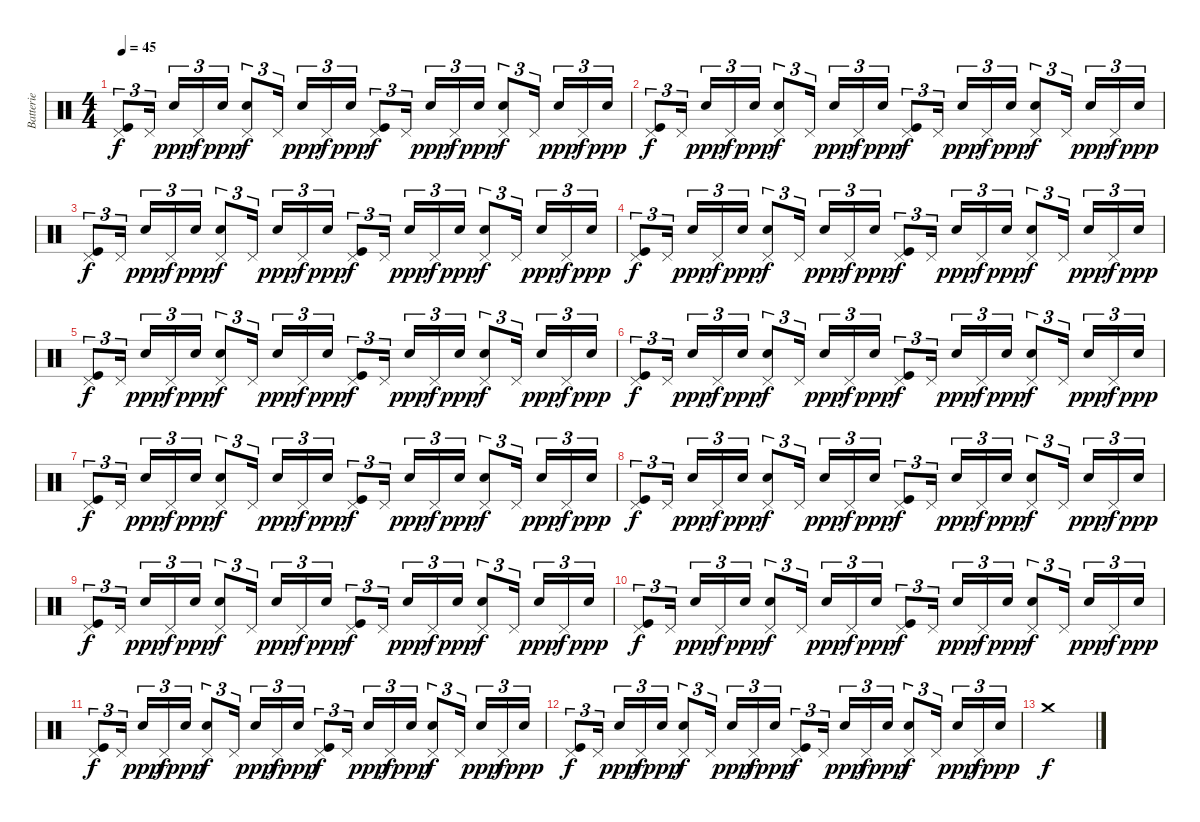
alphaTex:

\track ("Batterie" "Batterie") {instrument percussion}
\staff {score}
\articulation defaults
\ts (4 4)
\tempo 45
\clef neutral
\ks c
("Pedal Hi-Hat (hit)" "Kick (hit)").8{tu (3 2) dy f} "Pedal Hi-Hat (hit)".16{tu (3 2)} "Electric Snare (hit)".16{tu (3 2) dy ppp} "Pedal Hi-Hat (hit)".16{tu (3 2) dy f} "Electric Snare (hit)".16{tu (3 2) dy ppp} ("Pedal Hi-Hat (hit)" "Electric Snare (hit)").8{tu (3 2) dy f} "Pedal Hi-Hat (hit)".16{tu (3 2)} "Electric Snare (hit)".16{tu (3 2) dy ppp} "Pedal Hi-Hat (hit)".16{tu (3 2) dy f} "Electric Snare (hit)".16{tu (3 2) dy ppp} ("Pedal Hi-Hat (hit)" "Kick (hit)").8{tu (3 2) dy f} "Pedal Hi-Hat (hit)".16{tu (3 2)} "Electric Snare (hit)".16{tu (3 2) dy ppp} "Pedal Hi-Hat (hit)".16{tu (3 2) dy f} "Electric Snare (hit)".16{tu (3 2) dy ppp} ("Pedal Hi-Hat (hit)" "Electric Snare (hit)").8{tu (3 2) dy f} "Pedal Hi-Hat (hit)".16{tu (3 2)} "Electric Snare (hit)".16{tu (3 2) dy ppp} "Pedal Hi-Hat (hit)".16{tu (3 2) dy f} "Electric Snare (hit)".16{tu (3 2) dy ppp} |
("Pedal Hi-Hat (hit)" "Kick (hit)").8{tu (3 2) dy f} "Pedal Hi-Hat (hit)".16{tu (3 2)} "Electric Snare (hit)".16{tu (3 2) dy ppp} "Pedal Hi-Hat (hit)".16{tu (3 2) dy f} "Electric Snare (hit)".16{tu (3 2) dy ppp} ("Pedal Hi-Hat (hit)" "Electric Snare (hit)").8{tu (3 2) dy f} "Pedal Hi-Hat (hit)".16{tu (3 2)} "Electric Snare (hit)".16{tu (3 2) dy ppp} "Pedal Hi-Hat (hit)".16{tu (3 2) dy f} "Electric Snare (hit)".16{tu (3 2) dy ppp} ("Pedal Hi-Hat (hit)" "Kick (hit)").8{tu (3 2) dy f} "Pedal Hi-Hat (hit)".16{tu (3 2)} "Electric Snare (hit)".16{tu (3 2) dy ppp} "Pedal Hi-Hat (hit)".16{tu (3 2) dy f} "Electric Snare (hit)".16{tu (3 2) dy ppp} ("Pedal Hi-Hat (hit)" "Electric Snare (hit)").8{tu (3 2) dy f} "Pedal Hi-Hat (hit)".16{tu (3 2)} "Electric Snare (hit)".16{tu (3 2) dy ppp} "Pedal Hi-Hat (hit)".16{tu (3 2) dy f} "Electric Snare (hit)".16{tu (3 2) dy ppp} |
("Pedal Hi-Hat (hit)" "Kick (hit)").8{tu (3 2) dy f} "Pedal Hi-Hat (hit)".16{tu (3 2)} "Electric Snare (hit)".16{tu (3 2) dy ppp} "Pedal Hi-Hat (hit)".16{tu (3 2) dy f} "Electric Snare (hit)".16{tu (3 2) dy ppp} ("Pedal Hi-Hat (hit)" "Electric Snare (hit)").8{tu (3 2) dy f} "Pedal Hi-Hat (hit)".16{tu (3 2)} "Electric Snare (hit)".16{tu (3 2) dy ppp} "Pedal Hi-Hat (hit)".16{tu (3 2) dy f} "Electric Snare (hit)".16{tu (3 2) dy ppp} ("Pedal Hi-Hat (hit)" "Kick (hit)").8{tu (3 2) dy f} "Pedal Hi-Hat (hit)".16{tu (3 2)} "Electric Snare (hit)".16{tu (3 2) dy ppp} "Pedal Hi-Hat (hit)".16{tu (3 2) dy f} "Electric Snare (hit)".16{tu (3 2) dy ppp} ("Pedal Hi-Hat (hit)" "Electric Snare (hit)").8{tu (3 2) dy f} "Pedal Hi-Hat (hit)".16{tu (3 2)} "Electric Snare (hit)".16{tu (3 2) dy ppp} "Pedal Hi-Hat (hit)".16{tu (3 2) dy f} "Electric Snare (hit)".16{tu (3 2) dy ppp} |
("Pedal Hi-Hat (hit)" "Kick (hit)").8{tu (3 2) dy f} "Pedal Hi-Hat (hit)".16{tu (3 2)} "Electric Snare (hit)".16{tu (3 2) dy ppp} "Pedal Hi-Hat (hit)".16{tu (3 2) dy f} "Electric Snare (hit)".16{tu (3 2) dy ppp} ("Pedal Hi-Hat (hit)" "Electric Snare (hit)").8{tu (3 2) dy f} "Pedal Hi-Hat (hit)".16{tu (3 2)} "Electric Snare (hit)".16{tu (3 2) dy ppp} "Pedal Hi-Hat (hit)".16{tu (3 2) dy f} "Electric Snare (hit)".16{tu (3 2) dy ppp} ("Pedal Hi-Hat (hit)" "Kick (hit)").8{tu (3 2) dy f} "Pedal Hi-Hat (hit)".16{tu (3 2)} "Electric Snare (hit)".16{tu (3 2) dy ppp} "Pedal Hi-Hat (hit)".16{tu (3 2) dy f} "Electric Snare (hit)".16{tu (3 2) dy ppp} ("Pedal Hi-Hat (hit)" "Electric Snare (hit)").8{tu (3 2) dy f} "Pedal Hi-Hat (hit)".16{tu (3 2)} "Electric Snare (hit)".16{tu (3 2) dy ppp} "Pedal Hi-Hat (hit)".16{tu (3 2) dy f} "Electric Snare (hit)".16{tu (3 2) dy ppp} |
("Pedal Hi-Hat (hit)" "Kick (hit)").8{tu (3 2) dy f} "Pedal Hi-Hat (hit)".16{tu (3 2)} "Electric Snare (hit)".16{tu (3 2) dy ppp} "Pedal Hi-Hat (hit)".16{tu (3 2) dy f} "Electric Snare (hit)".16{tu (3 2) dy ppp} ("Pedal Hi-Hat (hit)" "Electric Snare (hit)").8{tu (3 2) dy f} "Pedal Hi-Hat (hit)".16{tu (3 2)} "Electric Snare (hit)".16{tu (3 2) dy ppp} "Pedal Hi-Hat (hit)".16{tu (3 2) dy f} "Electric Snare (hit)".16{tu (3 2) dy ppp} ("Pedal Hi-Hat (hit)" "Kick (hit)").8{tu (3 2) dy f} "Pedal Hi-Hat (hit)".16{tu (3 2)} "Electric Snare (hit)".16{tu (3 2) dy ppp} "Pedal Hi-Hat (hit)".16{tu (3 2) dy f} "Electric Snare (hit)".16{tu (3 2) dy ppp} ("Pedal Hi-Hat (hit)" "Electric Snare (hit)").8{tu (3 2) dy f} "Pedal Hi-Hat (hit)".16{tu (3 2)} "Electric Snare (hit)".16{tu (3 2) dy ppp} "Pedal Hi-Hat (hit)".16{tu (3 2) dy f} "Electric Snare (hit)".16{tu (3 2) dy ppp} |
("Pedal Hi-Hat (hit)" "Kick (hit)").8{tu (3 2) dy f} "Pedal Hi-Hat (hit)".16{tu (3 2)} "Electric Snare (hit)".16{tu (3 2) dy ppp} "Pedal Hi-Hat (hit)".16{tu (3 2) dy f} "Electric Snare (hit)".16{tu (3 2) dy ppp} ("Pedal Hi-Hat (hit)" "Electric Snare (hit)").8{tu (3 2) dy f} "Pedal Hi-Hat (hit)".16{tu (3 2)} "Electric Snare (hit)".16{tu (3 2) dy ppp} "Pedal Hi-Hat (hit)".16{tu (3 2) dy f} "Electric Snare (hit)".16{tu (3 2) dy ppp} ("Pedal Hi-Hat (hit)" "Kick (hit)").8{tu (3 2) dy f} "Pedal Hi-Hat (hit)".16{tu (3 2)} "Electric Snare (hit)".16{tu (3 2) dy ppp} "Pedal Hi-Hat (hit)".16{tu (3 2) dy f} "Electric Snare (hit)".16{tu (3 2) dy ppp} ("Pedal Hi-Hat (hit)" "Electric Snare (hit)").8{tu (3 2) dy f} "Pedal Hi-Hat (hit)".16{tu (3 2)} "Electric Snare (hit)".16{tu (3 2) dy ppp} "Pedal Hi-Hat (hit)".16{tu (3 2) dy f} "Electric Snare (hit)".16{tu (3 2) dy ppp} |
("Pedal Hi-Hat (hit)" "Kick (hit)").8{tu (3 2) dy f} "Pedal Hi-Hat (hit)".16{tu (3 2)} "Electric Snare (hit)".16{tu (3 2) dy ppp} "Pedal Hi-Hat (hit)".16{tu (3 2) dy f} "Electric Snare (hit)".16{tu (3 2) dy ppp} ("Pedal Hi-Hat (hit)" "Electric Snare (hit)").8{tu (3 2) dy f} "Pedal Hi-Hat (hit)".16{tu (3 2)} "Electric Snare (hit)".16{tu (3 2) dy ppp} "Pedal Hi-Hat (hit)".16{tu (3 2) dy f} "Electric Snare (hit)".16{tu (3 2) dy ppp} ("Pedal Hi-Hat (hit)" "Kick (hit)").8{tu (3 2) dy f} "Pedal Hi-Hat (hit)".16{tu (3 2)} "Electric Snare (hit)".16{tu (3 2) dy ppp} "Pedal Hi-Hat (hit)".16{tu (3 2) dy f} "Electric Snare (hit)".16{tu (3 2) dy ppp} ("Pedal Hi-Hat (hit)" "Electric Snare (hit)").8{tu (3 2) dy f} "Pedal Hi-Hat (hit)".16{tu (3 2)} "Electric Snare (hit)".16{tu (3 2) dy ppp} "Pedal Hi-Hat (hit)".16{tu (3 2) dy f} "Electric Snare (hit)".16{tu (3 2) dy ppp} |
("Pedal Hi-Hat (hit)" "Kick (hit)").8{tu (3 2) dy f} "Pedal Hi-Hat (hit)".16{tu (3 2)} "Electric Snare (hit)".16{tu (3 2) dy ppp} "Pedal Hi-Hat (hit)".16{tu (3 2) dy f} "Electric Snare (hit)".16{tu (3 2) dy ppp} ("Pedal Hi-Hat (hit)" "Electric Snare (hit)").8{tu (3 2) dy f} "Pedal Hi-Hat (hit)".16{tu (3 2)} "Electric Snare (hit)".16{tu (3 2) dy ppp} "Pedal Hi-Hat (hit)".16{tu (3 2) dy f} "Electric Snare (hit)".16{tu (3 2) dy ppp} ("Pedal Hi-Hat (hit)" "Kick (hit)").8{tu (3 2) dy f} "Pedal Hi-Hat (hit)".16{tu (3 2)} "Electric Snare (hit)".16{tu (3 2) dy ppp} "Pedal Hi-Hat (hit)".16{tu (3 2) dy f} "Electric Snare (hit)".16{tu (3 2) dy ppp} ("Pedal Hi-Hat (hit)" "Electric Snare (hit)").8{tu (3 2) dy f} "Pedal Hi-Hat (hit)".16{tu (3 2)} "Electric Snare (hit)".16{tu (3 2) dy ppp} "Pedal Hi-Hat (hit)".16{tu (3 2) dy f} "Electric Snare (hit)".16{tu (3 2) dy ppp} |
("Pedal Hi-Hat (hit)" "Kick (hit)").8{tu (3 2) dy f} "Pedal Hi-Hat (hit)".16{tu (3 2)} "Electric Snare (hit)".16{tu (3 2) dy ppp} "Pedal Hi-Hat (hit)".16{tu (3 2) dy f} "Electric Snare (hit)".16{tu (3 2) dy ppp} ("Pedal Hi-Hat (hit)" "Electric Snare (hit)").8{tu (3 2) dy f} "Pedal Hi-Hat (hit)".16{tu (3 2)} "Electric Snare (hit)".16{tu (3 2) dy ppp} "Pedal Hi-Hat (hit)".16{tu (3 2) dy f} "Electric Snare (hit)".16{tu (3 2) dy ppp} ("Pedal Hi-Hat (hit)" "Kick (hit)").8{tu (3 2) dy f} "Pedal Hi-Hat (hit)".16{tu (3 2)} "Electric Snare (hit)".16{tu (3 2) dy ppp} "Pedal Hi-Hat (hit)".16{tu (3 2) dy f} "Electric Snare (hit)".16{tu (3 2) dy ppp} ("Pedal Hi-Hat (hit)" "Electric Snare (hit)").8{tu (3 2) dy f} "Pedal Hi-Hat (hit)".16{tu (3 2)} "Electric Snare (hit)".16{tu (3 2) dy ppp} "Pedal Hi-Hat (hit)".16{tu (3 2) dy f} "Electric Snare (hit)".16{tu (3 2) dy ppp} |
("Pedal Hi-Hat (hit)" "Kick (hit)").8{tu (3 2) dy f} "Pedal Hi-Hat (hit)".16{tu (3 2)} "Electric Snare (hit)".16{tu (3 2) dy ppp} "Pedal Hi-Hat (hit)".16{tu (3 2) dy f} "Electric Snare (hit)".16{tu (3 2) dy ppp} ("Pedal Hi-Hat (hit)" "Electric Snare (hit)").8{tu (3 2) dy f} "Pedal Hi-Hat (hit)".16{tu (3 2)} "Electric Snare (hit)".16{tu (3 2) dy ppp} "Pedal Hi-Hat (hit)".16{tu (3 2) dy f} "Electric Snare (hit)".16{tu (3 2) dy ppp} ("Pedal Hi-Hat (hit)" "Kick (hit)").8{tu (3 2) dy f} "Pedal Hi-Hat (hit)".16{tu (3 2)} "Electric Snare (hit)".16{tu (3 2) dy ppp} "Pedal Hi-Hat (hit)".16{tu (3 2) dy f} "Electric Snare (hit)".16{tu (3 2) dy ppp} ("Pedal Hi-Hat (hit)" "Electric Snare (hit)").8{tu (3 2) dy f} "Pedal Hi-Hat (hit)".16{tu (3 2)} "Electric Snare (hit)".16{tu (3 2) dy ppp} "Pedal Hi-Hat (hit)".16{tu (3 2) dy f} "Electric Snare (hit)".16{tu (3 2) dy ppp} |
("Pedal Hi-Hat (hit)" "Kick (hit)").8{tu (3 2) dy f} "Pedal Hi-Hat (hit)".16{tu (3 2)} "Electric Snare (hit)".16{tu (3 2) dy ppp} "Pedal Hi-Hat (hit)".16{tu (3 2) dy f} "Electric Snare (hit)".16{tu (3 2) dy ppp} ("Pedal Hi-Hat (hit)" "Electric Snare (hit)").8{tu (3 2) dy f} "Pedal Hi-Hat (hit)".16{tu (3 2)} "Electric Snare (hit)".16{tu (3 2) dy ppp} "Pedal Hi-Hat (hit)".16{tu (3 2) dy f} "Electric Snare (hit)".16{tu (3 2) dy ppp} ("Pedal Hi-Hat (hit)" "Kick (hit)").8{tu (3 2) dy f} "Pedal Hi-Hat (hit)".16{tu (3 2)} "Electric Snare (hit)".16{tu (3 2) dy ppp} "Pedal Hi-Hat (hit)".16{tu (3 2) dy f} "Electric Snare (hit)".16{tu (3 2) dy ppp} ("Pedal Hi-Hat (hit)" "Electric Snare (hit)").8{tu (3 2) dy f} "Pedal Hi-Hat (hit)".16{tu (3 2)} "Electric Snare (hit)".16{tu (3 2) dy ppp} "Pedal Hi-Hat (hit)".16{tu (3 2) dy f} "Electric Snare (hit)".16{tu (3 2) dy ppp} |
("Pedal Hi-Hat (hit)" "Kick (hit)").8{tu (3 2) dy f} "Pedal Hi-Hat (hit)".16{tu (3 2)} "Electric Snare (hit)".16{tu (3 2) dy ppp} "Pedal Hi-Hat (hit)".16{tu (3 2) dy f} "Electric Snare (hit)".16{tu (3 2) dy ppp} ("Pedal Hi-Hat (hit)" "Electric Snare (hit)").8{tu (3 2) dy f} "Pedal Hi-Hat (hit)".16{tu (3 2)} "Electric Snare (hit)".16{tu (3 2) dy ppp} "Pedal Hi-Hat (hit)".16{tu (3 2) dy f} "Electric Snare (hit)".16{tu (3 2) dy ppp} ("Pedal Hi-Hat (hit)" "Kick (hit)").8{tu (3 2) dy f} "Pedal Hi-Hat (hit)".16{tu (3 2)} "Electric Snare (hit)".16{tu (3 2) dy ppp} "Pedal Hi-Hat (hit)".16{tu (3 2) dy f} "Electric Snare (hit)".16{tu (3 2) dy ppp} ("Pedal Hi-Hat (hit)" "Electric Snare (hit)").8{tu (3 2) dy f} "Pedal Hi-Hat (hit)".16{tu (3 2)} "Electric Snare (hit)".16{tu (3 2) dy ppp} "Pedal Hi-Hat (hit)".16{tu (3 2) dy f} "Electric Snare (hit)".16{tu (3 2) dy ppp} |
"Crash medium (hit)".1{dy f}
